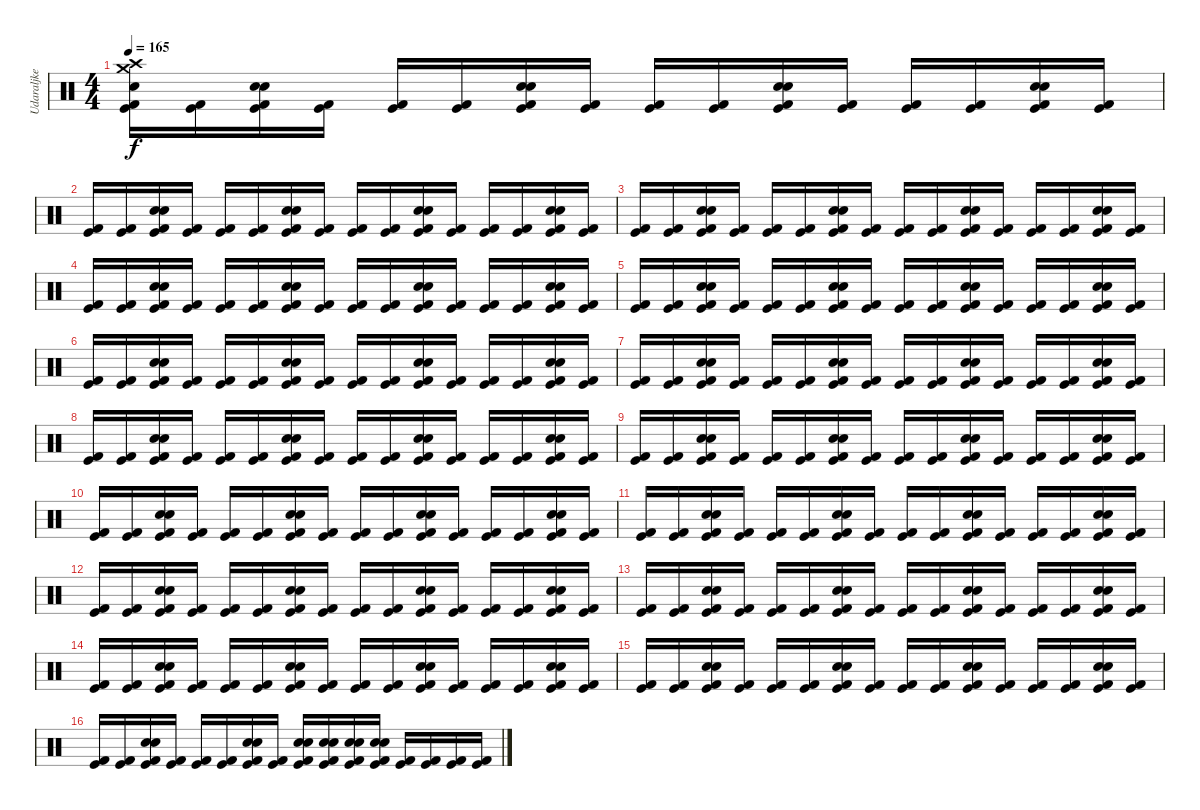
\track ("Udaraljke" "Udaraljke") {instrument percussion}
\staff {score}
\articulation defaults
\ts (4 4)
\tempo 165
\clef neutral
\ks c
("Crash medium (hit)" "Crash high (hit)" "Snare (hit) 2" "Kick (hit) 2" "Kick (hit)").16{dy f} ("Kick (hit) 2" "Kick (hit)").16 ("Snare (hit) 2" "Snare (hit) 2" "Kick (hit) 2" "Kick (hit)").16 ("Kick (hit) 2" "Kick (hit)").16 ("Kick (hit) 2" "Kick (hit)").16 ("Kick (hit) 2" "Kick (hit)").16 ("Snare (hit) 2" "Snare (hit) 2" "Kick (hit) 2" "Kick (hit)").16 ("Kick (hit) 2" "Kick (hit)").16 ("Kick (hit) 2" "Kick (hit)").16 ("Kick (hit) 2" "Kick (hit)").16 ("Snare (hit) 2" "Snare (hit) 2" "Kick (hit) 2" "Kick (hit)").16 ("Kick (hit) 2" "Kick (hit)").16 ("Kick (hit) 2" "Kick (hit)").16 ("Kick (hit) 2" "Kick (hit)").16 ("Snare (hit) 2" "Snare (hit) 2" "Kick (hit) 2" "Kick (hit)").16 ("Kick (hit) 2" "Kick (hit)").16 |
("Kick (hit) 2" "Kick (hit)").16 ("Kick (hit) 2" "Kick (hit)").16 ("Snare (hit) 2" "Snare (hit) 2" "Kick (hit) 2" "Kick (hit)").16 ("Kick (hit) 2" "Kick (hit)").16 ("Kick (hit) 2" "Kick (hit)").16 ("Kick (hit) 2" "Kick (hit)").16 ("Snare (hit) 2" "Snare (hit) 2" "Kick (hit) 2" "Kick (hit)").16 ("Kick (hit) 2" "Kick (hit)").16 ("Kick (hit) 2" "Kick (hit)").16 ("Kick (hit) 2" "Kick (hit)").16 ("Snare (hit) 2" "Snare (hit) 2" "Kick (hit) 2" "Kick (hit)").16 ("Kick (hit) 2" "Kick (hit)").16 ("Kick (hit) 2" "Kick (hit)").16 ("Kick (hit) 2" "Kick (hit)").16 ("Snare (hit) 2" "Snare (hit) 2" "Kick (hit) 2" "Kick (hit)").16 ("Kick (hit) 2" "Kick (hit)").16 |
("Kick (hit) 2" "Kick (hit)").16 ("Kick (hit) 2" "Kick (hit)").16 ("Snare (hit) 2" "Snare (hit) 2" "Kick (hit) 2" "Kick (hit)").16 ("Kick (hit) 2" "Kick (hit)").16 ("Kick (hit) 2" "Kick (hit)").16 ("Kick (hit) 2" "Kick (hit)").16 ("Snare (hit) 2" "Snare (hit) 2" "Kick (hit) 2" "Kick (hit)").16 ("Kick (hit) 2" "Kick (hit)").16 ("Kick (hit) 2" "Kick (hit)").16 ("Kick (hit) 2" "Kick (hit)").16 ("Snare (hit) 2" "Snare (hit) 2" "Kick (hit) 2" "Kick (hit)").16 ("Kick (hit) 2" "Kick (hit)").16 ("Kick (hit) 2" "Kick (hit)").16 ("Kick (hit) 2" "Kick (hit)").16 ("Snare (hit) 2" "Snare (hit) 2" "Kick (hit) 2" "Kick (hit)").16 ("Kick (hit) 2" "Kick (hit)").16 |
("Kick (hit) 2" "Kick (hit)").16 ("Kick (hit) 2" "Kick (hit)").16 ("Snare (hit) 2" "Snare (hit) 2" "Kick (hit) 2" "Kick (hit)").16 ("Kick (hit) 2" "Kick (hit)").16 ("Kick (hit) 2" "Kick (hit)").16 ("Kick (hit) 2" "Kick (hit)").16 ("Snare (hit) 2" "Snare (hit) 2" "Kick (hit) 2" "Kick (hit)").16 ("Kick (hit) 2" "Kick (hit)").16 ("Kick (hit) 2" "Kick (hit)").16 ("Kick (hit) 2" "Kick (hit)").16 ("Snare (hit) 2" "Snare (hit) 2" "Kick (hit) 2" "Kick (hit)").16 ("Kick (hit) 2" "Kick (hit)").16 ("Kick (hit) 2" "Kick (hit)").16 ("Kick (hit) 2" "Kick (hit)").16 ("Snare (hit) 2" "Snare (hit) 2" "Kick (hit) 2" "Kick (hit)").16 ("Kick (hit) 2" "Kick (hit)").16 |
("Kick (hit) 2" "Kick (hit)").16 ("Kick (hit) 2" "Kick (hit)").16 ("Snare (hit) 2" "Snare (hit) 2" "Kick (hit) 2" "Kick (hit)").16 ("Kick (hit) 2" "Kick (hit)").16 ("Kick (hit) 2" "Kick (hit)").16 ("Kick (hit) 2" "Kick (hit)").16 ("Snare (hit) 2" "Snare (hit) 2" "Kick (hit) 2" "Kick (hit)").16 ("Kick (hit) 2" "Kick (hit)").16 ("Kick (hit) 2" "Kick (hit)").16 ("Kick (hit) 2" "Kick (hit)").16 ("Snare (hit) 2" "Snare (hit) 2" "Kick (hit) 2" "Kick (hit)").16 ("Kick (hit) 2" "Kick (hit)").16 ("Kick (hit) 2" "Kick (hit)").16 ("Kick (hit) 2" "Kick (hit)").16 ("Snare (hit) 2" "Snare (hit) 2" "Kick (hit) 2" "Kick (hit)").16 ("Kick (hit) 2" "Kick (hit)").16 |
("Kick (hit) 2" "Kick (hit)").16 ("Kick (hit) 2" "Kick (hit)").16 ("Snare (hit) 2" "Snare (hit) 2" "Kick (hit) 2" "Kick (hit)").16 ("Kick (hit) 2" "Kick (hit)").16 ("Kick (hit) 2" "Kick (hit)").16 ("Kick (hit) 2" "Kick (hit)").16 ("Snare (hit) 2" "Snare (hit) 2" "Kick (hit) 2" "Kick (hit)").16 ("Kick (hit) 2" "Kick (hit)").16 ("Kick (hit) 2" "Kick (hit)").16 ("Kick (hit) 2" "Kick (hit)").16 ("Snare (hit) 2" "Snare (hit) 2" "Kick (hit) 2" "Kick (hit)").16 ("Kick (hit) 2" "Kick (hit)").16 ("Kick (hit) 2" "Kick (hit)").16 ("Kick (hit) 2" "Kick (hit)").16 ("Snare (hit) 2" "Snare (hit) 2" "Kick (hit) 2" "Kick (hit)").16 ("Kick (hit) 2" "Kick (hit)").16 |
("Kick (hit) 2" "Kick (hit)").16 ("Kick (hit) 2" "Kick (hit)").16 ("Snare (hit) 2" "Snare (hit) 2" "Kick (hit) 2" "Kick (hit)").16 ("Kick (hit) 2" "Kick (hit)").16 ("Kick (hit) 2" "Kick (hit)").16 ("Kick (hit) 2" "Kick (hit)").16 ("Snare (hit) 2" "Snare (hit) 2" "Kick (hit) 2" "Kick (hit)").16 ("Kick (hit) 2" "Kick (hit)").16 ("Kick (hit) 2" "Kick (hit)").16 ("Kick (hit) 2" "Kick (hit)").16 ("Snare (hit) 2" "Snare (hit) 2" "Kick (hit) 2" "Kick (hit)").16 ("Kick (hit) 2" "Kick (hit)").16 ("Kick (hit) 2" "Kick (hit)").16 ("Kick (hit) 2" "Kick (hit)").16 ("Snare (hit) 2" "Snare (hit) 2" "Kick (hit) 2" "Kick (hit)").16 ("Kick (hit) 2" "Kick (hit)").16 |
("Kick (hit) 2" "Kick (hit)").16 ("Kick (hit) 2" "Kick (hit)").16 ("Snare (hit) 2" "Snare (hit) 2" "Kick (hit) 2" "Kick (hit)").16 ("Kick (hit) 2" "Kick (hit)").16 ("Kick (hit) 2" "Kick (hit)").16 ("Kick (hit) 2" "Kick (hit)").16 ("Snare (hit) 2" "Snare (hit) 2" "Kick (hit) 2" "Kick (hit)").16 ("Kick (hit) 2" "Kick (hit)").16 ("Kick (hit) 2" "Kick (hit)").16 ("Kick (hit) 2" "Kick (hit)").16 ("Snare (hit) 2" "Snare (hit) 2" "Kick (hit) 2" "Kick (hit)").16 ("Kick (hit) 2" "Kick (hit)").16 ("Kick (hit) 2" "Kick (hit)").16 ("Kick (hit) 2" "Kick (hit)").16 ("Snare (hit) 2" "Snare (hit) 2" "Kick (hit) 2" "Kick (hit)").16 ("Kick (hit) 2" "Kick (hit)").16 |
("Kick (hit) 2" "Kick (hit)").16 ("Kick (hit) 2" "Kick (hit)").16 ("Snare (hit) 2" "Snare (hit) 2" "Kick (hit) 2" "Kick (hit)").16 ("Kick (hit) 2" "Kick (hit)").16 ("Kick (hit) 2" "Kick (hit)").16 ("Kick (hit) 2" "Kick (hit)").16 ("Snare (hit) 2" "Snare (hit) 2" "Kick (hit) 2" "Kick (hit)").16 ("Kick (hit) 2" "Kick (hit)").16 ("Kick (hit) 2" "Kick (hit)").16 ("Kick (hit) 2" "Kick (hit)").16 ("Snare (hit) 2" "Snare (hit) 2" "Kick (hit) 2" "Kick (hit)").16 ("Kick (hit) 2" "Kick (hit)").16 ("Kick (hit) 2" "Kick (hit)").16 ("Kick (hit) 2" "Kick (hit)").16 ("Snare (hit) 2" "Snare (hit) 2" "Kick (hit) 2" "Kick (hit)").16 ("Kick (hit) 2" "Kick (hit)").16 |
("Kick (hit) 2" "Kick (hit)").16 ("Kick (hit) 2" "Kick (hit)").16 ("Snare (hit) 2" "Snare (hit) 2" "Kick (hit) 2" "Kick (hit)").16 ("Kick (hit) 2" "Kick (hit)").16 ("Kick (hit) 2" "Kick (hit)").16 ("Kick (hit) 2" "Kick (hit)").16 ("Snare (hit) 2" "Snare (hit) 2" "Kick (hit) 2" "Kick (hit)").16 ("Kick (hit) 2" "Kick (hit)").16 ("Kick (hit) 2" "Kick (hit)").16 ("Kick (hit) 2" "Kick (hit)").16 ("Snare (hit) 2" "Snare (hit) 2" "Kick (hit) 2" "Kick (hit)").16 ("Kick (hit) 2" "Kick (hit)").16 ("Kick (hit) 2" "Kick (hit)").16 ("Kick (hit) 2" "Kick (hit)").16 ("Snare (hit) 2" "Snare (hit) 2" "Kick (hit) 2" "Kick (hit)").16 ("Kick (hit) 2" "Kick (hit)").16 |
("Kick (hit) 2" "Kick (hit)").16 ("Kick (hit) 2" "Kick (hit)").16 ("Snare (hit) 2" "Snare (hit) 2" "Kick (hit) 2" "Kick (hit)").16 ("Kick (hit) 2" "Kick (hit)").16 ("Kick (hit) 2" "Kick (hit)").16 ("Kick (hit) 2" "Kick (hit)").16 ("Snare (hit) 2" "Snare (hit) 2" "Kick (hit) 2" "Kick (hit)").16 ("Kick (hit) 2" "Kick (hit)").16 ("Kick (hit) 2" "Kick (hit)").16 ("Kick (hit) 2" "Kick (hit)").16 ("Snare (hit) 2" "Snare (hit) 2" "Kick (hit) 2" "Kick (hit)").16 ("Kick (hit) 2" "Kick (hit)").16 ("Kick (hit) 2" "Kick (hit)").16 ("Kick (hit) 2" "Kick (hit)").16 ("Snare (hit) 2" "Snare (hit) 2" "Kick (hit) 2" "Kick (hit)").16 ("Kick (hit) 2" "Kick (hit)").16 |
("Kick (hit) 2" "Kick (hit)").16 ("Kick (hit) 2" "Kick (hit)").16 ("Snare (hit) 2" "Snare (hit) 2" "Kick (hit) 2" "Kick (hit)").16 ("Kick (hit) 2" "Kick (hit)").16 ("Kick (hit) 2" "Kick (hit)").16 ("Kick (hit) 2" "Kick (hit)").16 ("Snare (hit) 2" "Snare (hit) 2" "Kick (hit) 2" "Kick (hit)").16 ("Kick (hit) 2" "Kick (hit)").16 ("Kick (hit) 2" "Kick (hit)").16 ("Kick (hit) 2" "Kick (hit)").16 ("Snare (hit) 2" "Snare (hit) 2" "Kick (hit) 2" "Kick (hit)").16 ("Kick (hit) 2" "Kick (hit)").16 ("Kick (hit) 2" "Kick (hit)").16 ("Kick (hit) 2" "Kick (hit)").16 ("Snare (hit) 2" "Snare (hit) 2" "Kick (hit) 2" "Kick (hit)").16 ("Kick (hit) 2" "Kick (hit)").16 |
("Kick (hit) 2" "Kick (hit)").16 ("Kick (hit) 2" "Kick (hit)").16 ("Snare (hit) 2" "Snare (hit) 2" "Kick (hit) 2" "Kick (hit)").16 ("Kick (hit) 2" "Kick (hit)").16 ("Kick (hit) 2" "Kick (hit)").16 ("Kick (hit) 2" "Kick (hit)").16 ("Snare (hit) 2" "Snare (hit) 2" "Kick (hit) 2" "Kick (hit)").16 ("Kick (hit) 2" "Kick (hit)").16 ("Kick (hit) 2" "Kick (hit)").16 ("Kick (hit) 2" "Kick (hit)").16 ("Snare (hit) 2" "Snare (hit) 2" "Kick (hit) 2" "Kick (hit)").16 ("Kick (hit) 2" "Kick (hit)").16 ("Kick (hit) 2" "Kick (hit)").16 ("Kick (hit) 2" "Kick (hit)").16 ("Snare (hit) 2" "Snare (hit) 2" "Kick (hit) 2" "Kick (hit)").16 ("Kick (hit) 2" "Kick (hit)").16 |
("Kick (hit) 2" "Kick (hit)").16 ("Kick (hit) 2" "Kick (hit)").16 ("Snare (hit) 2" "Snare (hit) 2" "Kick (hit) 2" "Kick (hit)").16 ("Kick (hit) 2" "Kick (hit)").16 ("Kick (hit) 2" "Kick (hit)").16 ("Kick (hit) 2" "Kick (hit)").16 ("Snare (hit) 2" "Snare (hit) 2" "Kick (hit) 2" "Kick (hit)").16 ("Kick (hit) 2" "Kick (hit)").16 ("Kick (hit) 2" "Kick (hit)").16 ("Kick (hit) 2" "Kick (hit)").16 ("Snare (hit) 2" "Snare (hit) 2" "Kick (hit) 2" "Kick (hit)").16 ("Kick (hit) 2" "Kick (hit)").16 ("Kick (hit) 2" "Kick (hit)").16 ("Kick (hit) 2" "Kick (hit)").16 ("Snare (hit) 2" "Snare (hit) 2" "Kick (hit) 2" "Kick (hit)").16 ("Kick (hit) 2" "Kick (hit)").16 |
("Kick (hit) 2" "Kick (hit)").16 ("Kick (hit) 2" "Kick (hit)").16 ("Snare (hit) 2" "Snare (hit) 2" "Kick (hit) 2" "Kick (hit)").16 ("Kick (hit) 2" "Kick (hit)").16 ("Kick (hit) 2" "Kick (hit)").16 ("Kick (hit) 2" "Kick (hit)").16 ("Snare (hit) 2" "Snare (hit) 2" "Kick (hit) 2" "Kick (hit)").16 ("Kick (hit) 2" "Kick (hit)").16 ("Kick (hit) 2" "Kick (hit)").16 ("Kick (hit) 2" "Kick (hit)").16 ("Snare (hit) 2" "Snare (hit) 2" "Kick (hit) 2" "Kick (hit)").16 ("Kick (hit) 2" "Kick (hit)").16 ("Kick (hit) 2" "Kick (hit)").16 ("Kick (hit) 2" "Kick (hit)").16 ("Snare (hit) 2" "Snare (hit) 2" "Kick (hit) 2" "Kick (hit)").16 ("Kick (hit) 2" "Kick (hit)").16 |
("Kick (hit) 2" "Kick (hit)").16 ("Kick (hit) 2" "Kick (hit)").16 ("Snare (hit) 2" "Snare (hit) 2" "Kick (hit) 2" "Kick (hit)").16 ("Kick (hit) 2" "Kick (hit)").16 ("Kick (hit) 2" "Kick (hit)").16 ("Kick (hit) 2" "Kick (hit)").16 ("Snare (hit) 2" "Snare (hit) 2" "Kick (hit) 2" "Kick (hit)").16 ("Kick (hit) 2" "Kick (hit)").16 ("Snare (hit) 2" "Snare (hit) 2" "Kick (hit) 2" "Kick (hit)").16 ("Snare (hit) 2" "Snare (hit) 2" "Kick (hit) 2" "Kick (hit)").16 ("Snare (hit) 2" "Snare (hit) 2" "Kick (hit) 2" "Kick (hit)").16 ("Snare (hit) 2" "Snare (hit) 2" "Kick (hit) 2" "Kick (hit)").16 ("Kick (hit) 2" "Kick (hit)").16 ("Kick (hit) 2" "Kick (hit)").16 ("Kick (hit) 2" "Kick (hit)").16 ("Kick (hit) 2" "Kick (hit)").16
